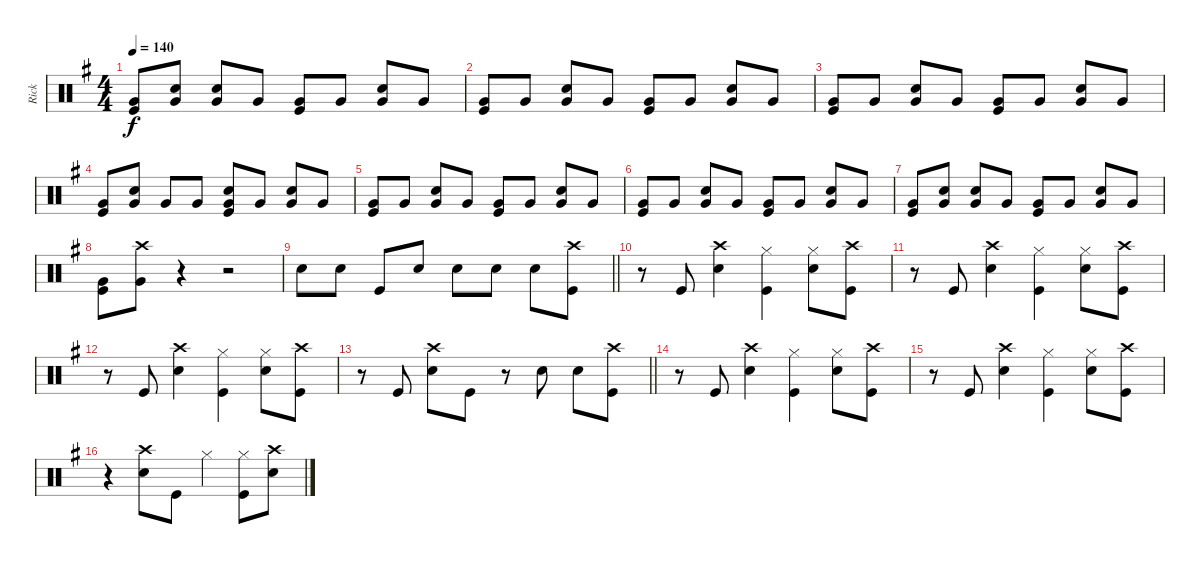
\track ("Rick" "Rick") {instrument percussion}
\staff {score}
\articulation defaults
\ts (4 4)
\tempo 140
\clef neutral
\ks g
("Very Low Tom (hit)" "Kick (hit)").8{dy f} ("Very Low Tom (hit)" "Snare (hit) 2").8 ("Very Low Tom (hit)" "Snare (hit) 2").8 "Very Low Tom (hit)".8 ("Very Low Tom (hit)" "Kick (hit)").8 "Very Low Tom (hit)".8 ("Snare (hit) 2" "Very Low Tom (hit)").8 "Very Low Tom (hit)".8 |
("Very Low Tom (hit)" "Kick (hit)").8 "Very Low Tom (hit)".8 ("Snare (hit) 2" "Very Low Tom (hit)").8 "Very Low Tom (hit)".8 ("Very Low Tom (hit)" "Kick (hit)").8 "Very Low Tom (hit)".8 ("Very Low Tom (hit)" "Snare (hit) 2").8 "Very Low Tom (hit)".8 |
("Very Low Tom (hit)" "Kick (hit)").8 "Very Low Tom (hit)".8 ("Snare (hit) 2" "Very Low Tom (hit)").8 "Very Low Tom (hit)".8 ("Very Low Tom (hit)" "Kick (hit)").8 "Very Low Tom (hit)".8 ("Very Low Tom (hit)" "Snare (hit) 2").8 "Very Low Tom (hit)".8 |
("Very Low Tom (hit)" "Kick (hit)").8 ("Snare (hit) 2" "Very Low Tom (hit)").8 "Very Low Tom (hit)".8 "Very Low Tom (hit)".8 ("Snare (hit) 2" "Very Low Tom (hit)" "Kick (hit)").8 "Very Low Tom (hit)".8 ("Snare (hit) 2" "Very Low Tom (hit)").8 "Very Low Tom (hit)".8 |
("Very Low Tom (hit)" "Kick (hit)").8 "Very Low Tom (hit)".8 ("Snare (hit) 2" "Very Low Tom (hit)").8 "Very Low Tom (hit)".8 ("Very Low Tom (hit)" "Kick (hit)").8 "Very Low Tom (hit)".8 ("Snare (hit) 2" "Very Low Tom (hit)").8 "Very Low Tom (hit)".8 |
("Very Low Tom (hit)" "Kick (hit)").8 "Very Low Tom (hit)".8 ("Snare (hit) 2" "Very Low Tom (hit)").8 "Very Low Tom (hit)".8 ("Very Low Tom (hit)" "Kick (hit)").8 "Very Low Tom (hit)".8 ("Snare (hit) 2" "Very Low Tom (hit)").8 "Very Low Tom (hit)".8 |
("Very Low Tom (hit)" "Kick (hit)").8 ("Snare (hit) 2" "Very Low Tom (hit)").8 ("Snare (hit) 2" "Very Low Tom (hit)").8 "Very Low Tom (hit)".8 ("Very Low Tom (hit)" "Kick (hit)").8 "Very Low Tom (hit)".8 ("Snare (hit) 2" "Very Low Tom (hit)").8 "Very Low Tom (hit)".8 |
("Very Low Tom (hit)" "Kick (hit)").8 ("Crash high (hit)" "Very Low Tom (hit)").8 r.4 r.2 |
\barLineRight lightlight "Snare (hit) 2".8 "Snare (hit) 2".8 "Kick (hit)".8 "Snare (hit) 2".8 "Snare (hit) 2".8 "Snare (hit) 2".8 "Snare (hit) 2".8
("Crash high (hit)" "Kick (hit)").8 |
r.8 "Kick (hit)".8 ("Crash high (hit)" "Snare (hit) 2").4 ("Hi-Hat (closed)" "Kick (hit)").4 ("Hi-Hat (closed)" "Snare (hit) 2").8 ("Crash high (hit)" "Kick (hit)").8 |
r.8 "Kick (hit)".8 ("Crash high (hit)" "Snare (hit) 2").4 ("Hi-Hat (closed)" "Kick (hit)").4 ("Hi-Hat (closed)" "Snare (hit) 2").8 ("Crash high (hit)" "Kick (hit)").8 |
r.8 "Kick (hit)".8 ("Crash high (hit)" "Snare (hit) 2").4 ("Hi-Hat (closed)" "Kick (hit)").4 ("Hi-Hat (closed)" "Snare (hit) 2").8 ("Crash high (hit)" "Kick (hit)").8 |
\barLineRight lightlight
r.8 "Kick (hit)".8 ("Crash high (hit)" "Snare (hit) 2").8 "Kick (hit)".8 r.8 "Snare (hit) 2".8 "Snare (hit) 2".8 ("Crash high (hit)" "Kick (hit)").8 |
r.8 "Kick (hit)".8 ("Crash high (hit)" "Snare (hit) 2").4 ("Hi-Hat (closed)" "Kick (hit)").4 ("Hi-Hat (closed)" "Snare (hit) 2").8 ("Crash high (hit)" "Kick (hit)").8 |
r.8 "Kick (hit)".8 ("Crash high (hit)" "Snare (hit) 2").4 ("Hi-Hat (closed)" "Kick (hit)").4 ("Hi-Hat (closed)" "Snare (hit) 2").8 ("Crash high (hit)" "Kick (hit)").8 |
r.4 ("Crash high (hit)" "Snare (hit) 2").8 "Kick (hit)".8 "Hi-Hat (closed)".4 ("Hi-Hat (closed)" "Kick (hit)").8 ("Crash high (hit)" "Snare (hit) 2").8
